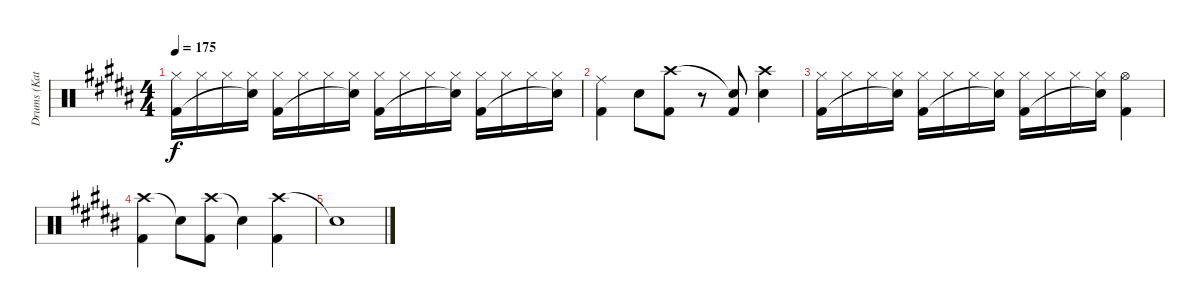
\track ("Drums (Katsuji)" "Drums (Kat") {instrument percussion}
\staff {score}
\articulation defaults
\ts (4 4)
\tempo 175
\clef neutral
\ks b
("Hi-Hat (closed)" "Kick (hit) 2").16{dy f} "Hi-Hat (closed)".16 "Hi-Hat (closed)".16 ("Hi-Hat (closed)" "Snare (hit)"{t}).16 ("Hi-Hat (closed)" "Kick (hit) 2").16 "Hi-Hat (closed)".16 "Hi-Hat (closed)".16 ("Hi-Hat (closed)" "Snare (hit)"{t}).16 ("Hi-Hat (closed)" "Kick (hit) 2").16 "Hi-Hat (closed)".16 "Hi-Hat (closed)".16 ("Hi-Hat (closed)" "Snare (hit)"{t}).16 ("Hi-Hat (closed)" "Kick (hit) 2").16 "Hi-Hat (closed)".16 "Hi-Hat (closed)".16 ("Hi-Hat (closed)" "Snare (hit)"{t}).16 |
("Ride (middle)" "Kick (hit) 2").4 "Snare (hit) 2".8 ("Crash high (hit)" "Kick (hit) 2").8 r.8 ("Snare (hit)"{t} "Kick (hit) 2").8 ("Crash high (hit)" "Snare (hit) 2").4 |
("Hi-Hat (closed)" "Kick (hit) 2").16 "Hi-Hat (closed)".16 "Hi-Hat (closed)".16 ("Hi-Hat (closed)" "Snare (hit)"{t}).16 ("Hi-Hat (closed)" "Kick (hit) 2").16 "Hi-Hat (closed)".16 "Hi-Hat (closed)".16 ("Hi-Hat (closed)" "Snare (hit)"{t}).16 ("Hi-Hat (closed)" "Kick (hit) 2").16 "Hi-Hat (closed)".16 "Hi-Hat (closed)".16 ("Hi-Hat (closed)" "Snare (hit)"{t}).16 ("Hi-Hat (open)" "Kick (hit) 2").4 |
("Crash high (hit)" "Kick (hit) 2").4 "Snare (hit)"{t}.8 ("Crash high (hit)" "Kick (hit) 2").8 "Snare (hit)"{t}.4 ("Crash high (hit)" "Kick (hit) 2").4 |
"Snare (hit)"{t}.1
